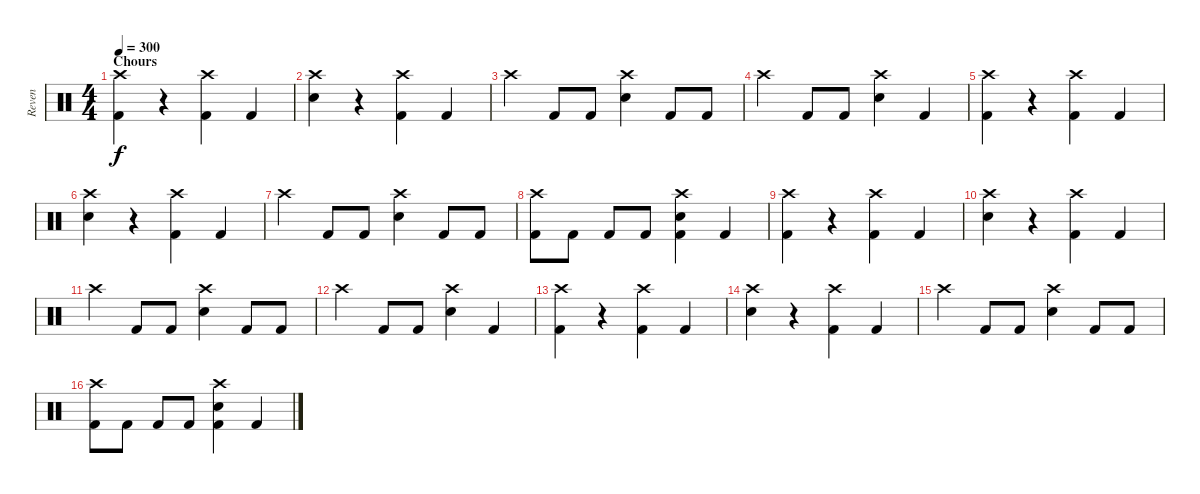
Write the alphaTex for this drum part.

\track ("Reven" "Reven") {instrument percussion}
\staff {score}
\articulation defaults
\ts (4 4)
\section ("" "Chours")
\tempo 300
\clef neutral
\ks c
("Crash high (hit)" "Kick (hit) 2").4{dy f} r.4 ("Crash high (hit)" "Kick (hit) 2").4 "Kick (hit) 2".4 |
("Crash high (hit)" "Electric Snare (hit)").4 r.4 ("Crash high (hit)" "Kick (hit) 2").4 "Kick (hit) 2".4 |
"Crash high (hit)".4 "Kick (hit) 2".8 "Kick (hit) 2".8 ("Crash high (hit)" "Electric Snare (hit)").4 "Kick (hit) 2".8 "Kick (hit) 2".8 |
"Crash high (hit)".4 "Kick (hit) 2".8 "Kick (hit) 2".8 ("Crash high (hit)" "Electric Snare (hit)").4 "Kick (hit) 2".4 |
("Crash high (hit)" "Kick (hit) 2").4 r.4 ("Crash high (hit)" "Kick (hit) 2").4 "Kick (hit) 2".4 |
("Crash high (hit)" "Electric Snare (hit)").4 r.4 ("Crash high (hit)" "Kick (hit) 2").4 "Kick (hit) 2".4 |
"Crash high (hit)".4 "Kick (hit) 2".8 "Kick (hit) 2".8 ("Crash high (hit)" "Electric Snare (hit)").4 "Kick (hit) 2".8 "Kick (hit) 2".8 |
("Crash high (hit)" "Kick (hit) 2").8 "Kick (hit) 2".8 "Kick (hit) 2".8 "Kick (hit) 2".8 ("Crash high (hit)" "Electric Snare (hit)" "Kick (hit) 2").4 "Kick (hit) 2".4 |
("Crash high (hit)" "Kick (hit) 2").4 r.4 ("Crash high (hit)" "Kick (hit) 2").4 "Kick (hit) 2".4 |
("Crash high (hit)" "Electric Snare (hit)").4 r.4 ("Crash high (hit)" "Kick (hit) 2").4 "Kick (hit) 2".4 |
"Crash high (hit)".4 "Kick (hit) 2".8 "Kick (hit) 2".8 ("Crash high (hit)" "Electric Snare (hit)").4 "Kick (hit) 2".8 "Kick (hit) 2".8 |
"Crash high (hit)".4 "Kick (hit) 2".8 "Kick (hit) 2".8 ("Crash high (hit)" "Electric Snare (hit)").4 "Kick (hit) 2".4 |
("Crash high (hit)" "Kick (hit) 2").4 r.4 ("Crash high (hit)" "Kick (hit) 2").4 "Kick (hit) 2".4 |
("Crash high (hit)" "Electric Snare (hit)").4 r.4 ("Crash high (hit)" "Kick (hit) 2").4 "Kick (hit) 2".4 |
"Crash high (hit)".4 "Kick (hit) 2".8 "Kick (hit) 2".8 ("Crash high (hit)" "Electric Snare (hit)").4 "Kick (hit) 2".8 "Kick (hit) 2".8 |
("Crash high (hit)" "Kick (hit) 2").8 "Kick (hit) 2".8 "Kick (hit) 2".8 "Kick (hit) 2".8 ("Crash high (hit)" "Electric Snare (hit)" "Kick (hit) 2").4 "Kick (hit) 2".4
